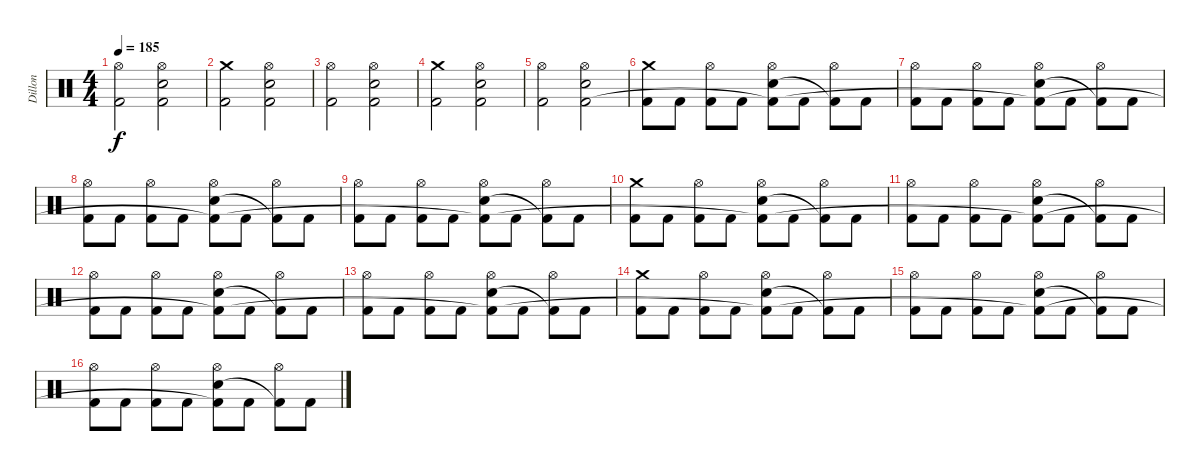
\track ("Dillon" "Dillon") {instrument percussion}
\staff {score}
\articulation defaults
\ts (4 4)
\tempo 185
\clef neutral
\ks c
("Hi-Hat (open)" "Kick (hit) 2").2{dy f} ("Hi-Hat (open)" "Electric Snare (hit)" "Kick (hit) 2").2 |
("Crash medium (hit)" "Kick (hit) 2").2 ("Hi-Hat (open)" "Electric Snare (hit)" "Kick (hit) 2").2 |
("Hi-Hat (open)" "Kick (hit) 2").2 ("Hi-Hat (open)" "Electric Snare (hit)" "Kick (hit) 2").2 |
("Crash medium (hit)" "Kick (hit) 2").2 ("Hi-Hat (open)" "Electric Snare (hit)" "Kick (hit) 2").2 |
("Hi-Hat (open)" "Kick (hit) 2").2 ("Hi-Hat (open)" "Electric Snare (hit)" "Kick (hit) 2").2 |
("Crash medium (hit)" "Kick (hit) 2").8 "Kick (hit) 2".8 ("Hi-Hat (open)" "Kick (hit) 2").8 "Kick (hit) 2".8 ("Hi-Hat (open)" "Electric Snare (hit)" "Kick (hit) 2"{t}).8 "Kick (hit) 2".8 ("Hi-Hat (open)" "Kick (hit) 2"{t}).8 "Kick (hit) 2".8 |
("Hi-Hat (open)" "Kick (hit) 2").8 "Kick (hit) 2".8 ("Hi-Hat (open)" "Kick (hit) 2").8 "Kick (hit) 2".8 ("Hi-Hat (open)" "Electric Snare (hit)" "Kick (hit) 2"{t}).8 "Kick (hit) 2".8 ("Hi-Hat (open)" "Kick (hit) 2"{t}).8 "Kick (hit) 2".8 |
("Hi-Hat (open)" "Kick (hit) 2").8 "Kick (hit) 2".8 ("Hi-Hat (open)" "Kick (hit) 2").8 "Kick (hit) 2".8 ("Hi-Hat (open)" "Electric Snare (hit)" "Kick (hit) 2"{t}).8 "Kick (hit) 2".8 ("Hi-Hat (open)" "Kick (hit) 2"{t}).8 "Kick (hit) 2".8 |
("Hi-Hat (open)" "Kick (hit) 2").8 "Kick (hit) 2".8 ("Hi-Hat (open)" "Kick (hit) 2").8 "Kick (hit) 2".8 ("Hi-Hat (open)" "Electric Snare (hit)" "Kick (hit) 2"{t}).8 "Kick (hit) 2".8 ("Hi-Hat (open)" "Kick (hit) 2"{t}).8 "Kick (hit) 2".8 |
("Crash medium (hit)" "Kick (hit) 2").8 "Kick (hit) 2".8 ("Hi-Hat (open)" "Kick (hit) 2").8 "Kick (hit) 2".8 ("Hi-Hat (open)" "Electric Snare (hit)" "Kick (hit) 2"{t}).8 "Kick (hit) 2".8 ("Hi-Hat (open)" "Kick (hit) 2"{t}).8 "Kick (hit) 2".8 |
("Hi-Hat (open)" "Kick (hit) 2").8 "Kick (hit) 2".8 ("Hi-Hat (open)" "Kick (hit) 2").8 "Kick (hit) 2".8 ("Hi-Hat (open)" "Electric Snare (hit)" "Kick (hit) 2"{t}).8 "Kick (hit) 2".8 ("Hi-Hat (open)" "Kick (hit) 2"{t}).8 "Kick (hit) 2".8 |
("Hi-Hat (open)" "Kick (hit) 2").8 "Kick (hit) 2".8 ("Hi-Hat (open)" "Kick (hit) 2").8 "Kick (hit) 2".8 ("Hi-Hat (open)" "Electric Snare (hit)" "Kick (hit) 2"{t}).8 "Kick (hit) 2".8 ("Hi-Hat (open)" "Kick (hit) 2"{t}).8 "Kick (hit) 2".8 |
("Hi-Hat (open)" "Kick (hit) 2").8 "Kick (hit) 2".8 ("Hi-Hat (open)" "Kick (hit) 2").8 "Kick (hit) 2".8 ("Hi-Hat (open)" "Electric Snare (hit)" "Kick (hit) 2"{t}).8 "Kick (hit) 2".8 ("Hi-Hat (open)" "Kick (hit) 2"{t}).8 "Kick (hit) 2".8 |
("Crash medium (hit)" "Kick (hit) 2").8 "Kick (hit) 2".8 ("Hi-Hat (open)" "Kick (hit) 2").8 "Kick (hit) 2".8 ("Hi-Hat (open)" "Electric Snare (hit)" "Kick (hit) 2"{t}).8 "Kick (hit) 2".8 ("Hi-Hat (open)" "Kick (hit) 2"{t}).8 "Kick (hit) 2".8 |
("Hi-Hat (open)" "Kick (hit) 2").8 "Kick (hit) 2".8 ("Hi-Hat (open)" "Kick (hit) 2").8 "Kick (hit) 2".8 ("Hi-Hat (open)" "Electric Snare (hit)" "Kick (hit) 2"{t}).8 "Kick (hit) 2".8 ("Hi-Hat (open)" "Kick (hit) 2"{t}).8 "Kick (hit) 2".8 |
("Hi-Hat (open)" "Kick (hit) 2").8 "Kick (hit) 2".8 ("Hi-Hat (open)" "Kick (hit) 2").8 "Kick (hit) 2".8 ("Hi-Hat (open)" "Electric Snare (hit)" "Kick (hit) 2"{t}).8 "Kick (hit) 2".8 ("Hi-Hat (open)" "Kick (hit) 2"{t}).8 "Kick (hit) 2".8
